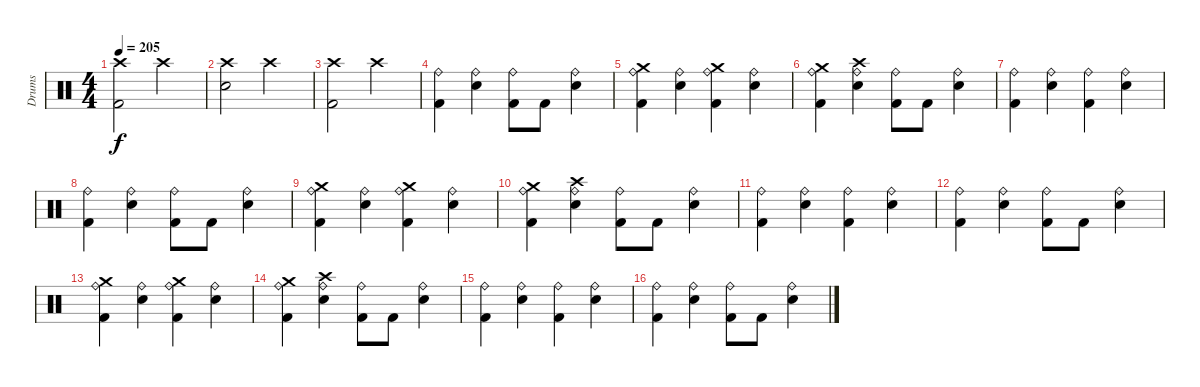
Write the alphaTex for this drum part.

\track ("Drums" "Drums") {instrument percussion}
\staff {score}
\articulation defaults
\ts (4 4)
\tempo 205
\clef neutral
\ks c
("Crash high (hit)" "Kick (hit) 2").2{dy f} "Crash high (hit)".2 |
("Crash high (hit)" "Electric Snare (hit)").2 "Crash high (hit)".2 |
("Crash high (hit)" "Kick (hit) 2").2 "Crash high (hit)".2 |
("Ride (bell)" "Kick (hit) 2").4 ("Ride (bell)" "Electric Snare (hit)").4 ("Ride (bell)" "Kick (hit) 2").8 "Kick (hit) 2".8 ("Ride (bell)" "Electric Snare (hit)").4 |
("Crash medium (hit)" "Ride (bell)" "Kick (hit) 2").4 ("Ride (bell)" "Electric Snare (hit)").4 ("Crash medium (hit)" "Ride (bell)" "Kick (hit) 2").4 ("Ride (bell)" "Electric Snare (hit)").4 |
("Crash medium (hit)" "Ride (bell)" "Kick (hit) 2").4 ("Crash high (hit)" "Ride (bell)" "Electric Snare (hit)").4 ("Ride (bell)" "Kick (hit) 2").8 "Kick (hit) 2".8 ("Ride (bell)" "Electric Snare (hit)").4 |
("Ride (bell)" "Kick (hit) 2").4 ("Ride (bell)" "Electric Snare (hit)").4 ("Ride (bell)" "Kick (hit) 2").4 ("Ride (bell)" "Electric Snare (hit)").4 |
("Ride (bell)" "Kick (hit) 2").4 ("Ride (bell)" "Electric Snare (hit)").4 ("Ride (bell)" "Kick (hit) 2").8 "Kick (hit) 2".8 ("Ride (bell)" "Electric Snare (hit)").4 |
("Crash medium (hit)" "Ride (bell)" "Kick (hit) 2").4 ("Ride (bell)" "Electric Snare (hit)").4 ("Crash medium (hit)" "Ride (bell)" "Kick (hit) 2").4 ("Ride (bell)" "Electric Snare (hit)").4 |
("Crash medium (hit)" "Ride (bell)" "Kick (hit) 2").4 ("Crash high (hit)" "Ride (bell)" "Electric Snare (hit)").4 ("Ride (bell)" "Kick (hit) 2").8 "Kick (hit) 2".8 ("Ride (bell)" "Electric Snare (hit)").4 |
("Ride (bell)" "Kick (hit) 2").4 ("Ride (bell)" "Electric Snare (hit)").4 ("Ride (bell)" "Kick (hit) 2").4 ("Ride (bell)" "Electric Snare (hit)").4 |
("Ride (bell)" "Kick (hit) 2").4 ("Ride (bell)" "Electric Snare (hit)").4 ("Ride (bell)" "Kick (hit) 2").8 "Kick (hit) 2".8 ("Ride (bell)" "Electric Snare (hit)").4 |
("Crash medium (hit)" "Ride (bell)" "Kick (hit) 2").4 ("Ride (bell)" "Electric Snare (hit)").4 ("Crash medium (hit)" "Ride (bell)" "Kick (hit) 2").4 ("Ride (bell)" "Electric Snare (hit)").4 |
("Crash medium (hit)" "Ride (bell)" "Kick (hit) 2").4 ("Crash high (hit)" "Ride (bell)" "Electric Snare (hit)").4 ("Ride (bell)" "Kick (hit) 2").8 "Kick (hit) 2".8 ("Ride (bell)" "Electric Snare (hit)").4 |
("Ride (bell)" "Kick (hit) 2").4 ("Ride (bell)" "Electric Snare (hit)").4 ("Ride (bell)" "Kick (hit) 2").4 ("Ride (bell)" "Electric Snare (hit)").4 |
("Ride (bell)" "Kick (hit) 2").4 ("Ride (bell)" "Electric Snare (hit)").4 ("Ride (bell)" "Kick (hit) 2").8 "Kick (hit) 2".8 ("Ride (bell)" "Electric Snare (hit)").4
